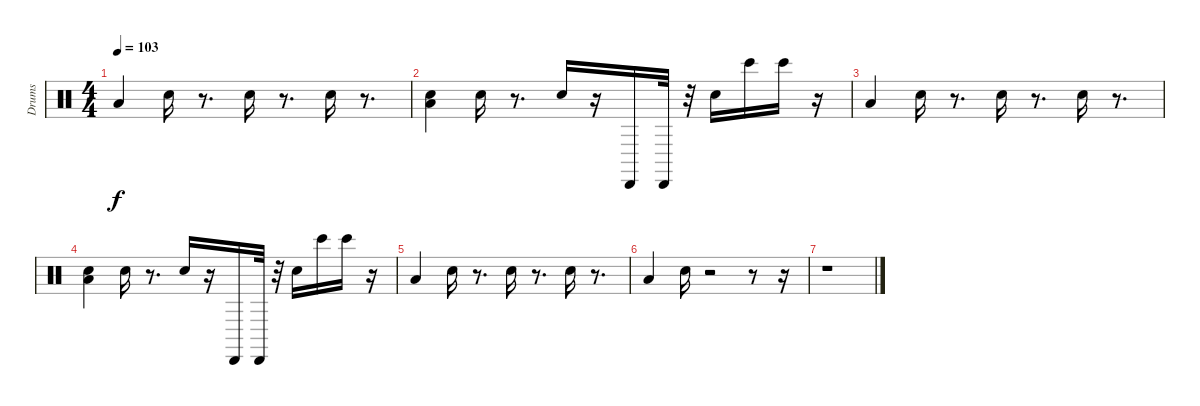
\track ("Drums" "Drums") {instrument percussion}
\staff {score}
\articulation defaults
\ts (4 4)
\tempo 103
\clef neutral
\ks c "Low Tom (hit)".4{dy f} "Electric Snare (hit)".16
r.8{d} "Electric Snare (hit)".16 r.8{d} "Electric Snare (hit)".16 r.8{d} |
("Low Tom (hit)" "Electric Snare (hit)").4 "Electric Snare (hit)".16 r.8{d} "Electric Snare (hit)".16 r.16 "Cabasa (hit)".16 "Cabasa (hit)".32 r.32 "Electric Snare (hit)".16 "Bongo High (hit)".16 "Bongo High (hit)".16 r.16 |
"Low Tom (hit)".4 "Electric Snare (hit)".16 r.8{d} "Electric Snare (hit)".16 r.8{d} "Electric Snare (hit)".16 r.8{d} |
("Low Tom (hit)" "Electric Snare (hit)").4 "Electric Snare (hit)".16 r.8{d} "Electric Snare (hit)".16 r.16 "Cabasa (hit)".16 "Cabasa (hit)".32 r.32 "Electric Snare (hit)".16 "Bongo High (hit)".16 "Bongo High (hit)".16 r.16 |
"Low Tom (hit)".4 "Electric Snare (hit)".16 r.8{d} "Electric Snare (hit)".16 r.8{d} "Electric Snare (hit)".16 r.8{d} |
"Low Tom (hit)".4 "Electric Snare (hit)".16 r.2 r.8 r.16 |
r.1
